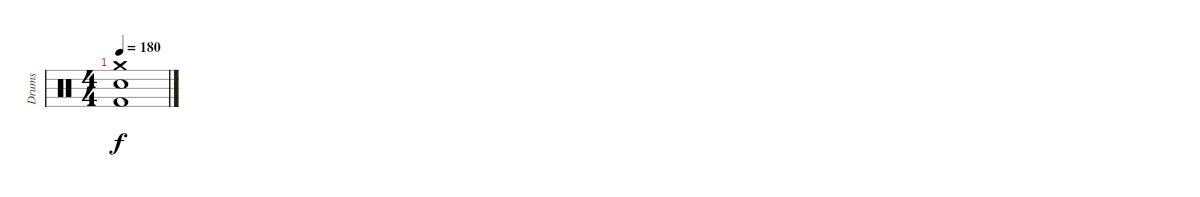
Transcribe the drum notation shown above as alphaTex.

\track ("Drums" "Drums") {instrument percussion}
\staff {score}
\articulation defaults
\ts (4 4)
\tempo 180
\clef neutral
\ks c
("Crash medium (hit)" "Electric Snare (hit)" "Kick (hit) 2").1{dy f}
